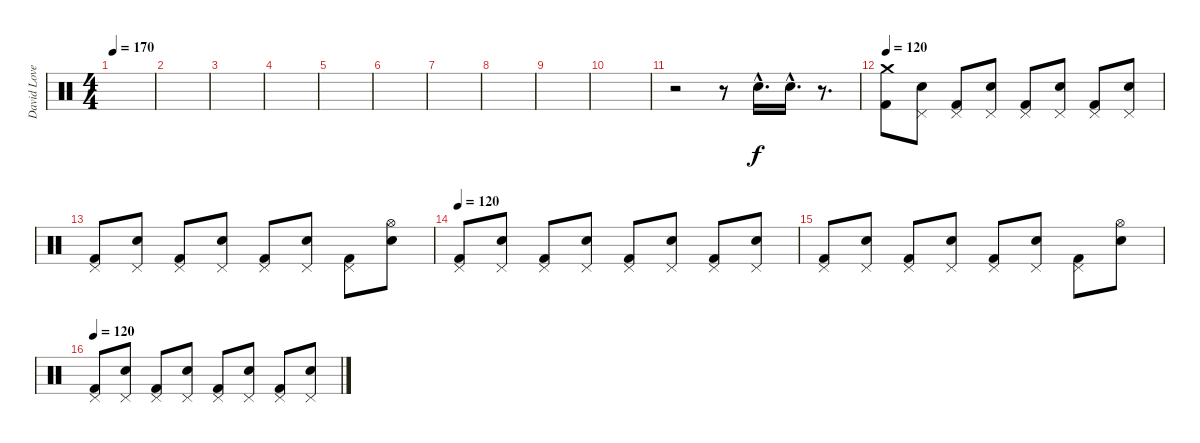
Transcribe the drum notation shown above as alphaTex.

\track ("David Lovering (Drums)" "David Love") {instrument percussion}
\staff {score}
\articulation defaults
\ts (4 4)
\tempo 170
\clef neutral
\ks c
|
|
|
|
|
|
|
|
|
|
r.2 r.8 "Electric Snare (hit)"{hac}.16{d dy f} "Electric Snare (hit)"{hac}.16{d} r.8{d} |
\tempo 120
("Crash medium (hit)" "Kick (hit) 2").8 ("Pedal Hi-Hat (hit)" "Electric Snare (hit)").8 ("Pedal Hi-Hat (hit)" "Kick (hit) 2").8 ("Pedal Hi-Hat (hit)" "Electric Snare (hit)").8 ("Pedal Hi-Hat (hit)" "Kick (hit) 2").8 ("Pedal Hi-Hat (hit)" "Electric Snare (hit)").8 ("Pedal Hi-Hat (hit)" "Kick (hit) 2").8 ("Pedal Hi-Hat (hit)" "Electric Snare (hit)").8 |
("Pedal Hi-Hat (hit)" "Kick (hit) 2").8 ("Pedal Hi-Hat (hit)" "Electric Snare (hit)").8 ("Pedal Hi-Hat (hit)" "Kick (hit) 2").8 ("Pedal Hi-Hat (hit)" "Electric Snare (hit)").8 ("Pedal Hi-Hat (hit)" "Kick (hit) 2").8 ("Pedal Hi-Hat (hit)" "Electric Snare (hit)").8 ("Pedal Hi-Hat (hit)" "Kick (hit) 2").8 ("Hi-Hat (open)" "Electric Snare (hit)").8 |
\tempo 120
("Pedal Hi-Hat (hit)" "Kick (hit) 2").8 ("Pedal Hi-Hat (hit)" "Electric Snare (hit)").8 ("Pedal Hi-Hat (hit)" "Kick (hit) 2").8 ("Pedal Hi-Hat (hit)" "Electric Snare (hit)").8 ("Pedal Hi-Hat (hit)" "Kick (hit) 2").8 ("Pedal Hi-Hat (hit)" "Electric Snare (hit)").8 ("Pedal Hi-Hat (hit)" "Kick (hit) 2").8 ("Pedal Hi-Hat (hit)" "Electric Snare (hit)").8 |
("Pedal Hi-Hat (hit)" "Kick (hit) 2").8 ("Pedal Hi-Hat (hit)" "Electric Snare (hit)").8 ("Pedal Hi-Hat (hit)" "Kick (hit) 2").8 ("Pedal Hi-Hat (hit)" "Electric Snare (hit)").8 ("Pedal Hi-Hat (hit)" "Kick (hit) 2").8 ("Pedal Hi-Hat (hit)" "Electric Snare (hit)").8 ("Pedal Hi-Hat (hit)" "Kick (hit) 2").8 ("Hi-Hat (open)" "Electric Snare (hit)").8 |
\tempo 120
("Pedal Hi-Hat (hit)" "Kick (hit) 2").8 ("Pedal Hi-Hat (hit)" "Electric Snare (hit)").8 ("Pedal Hi-Hat (hit)" "Kick (hit) 2").8 ("Pedal Hi-Hat (hit)" "Electric Snare (hit)").8 ("Pedal Hi-Hat (hit)" "Kick (hit) 2").8 ("Pedal Hi-Hat (hit)" "Electric Snare (hit)").8 ("Pedal Hi-Hat (hit)" "Kick (hit) 2").8 ("Pedal Hi-Hat (hit)" "Electric Snare (hit)").8
